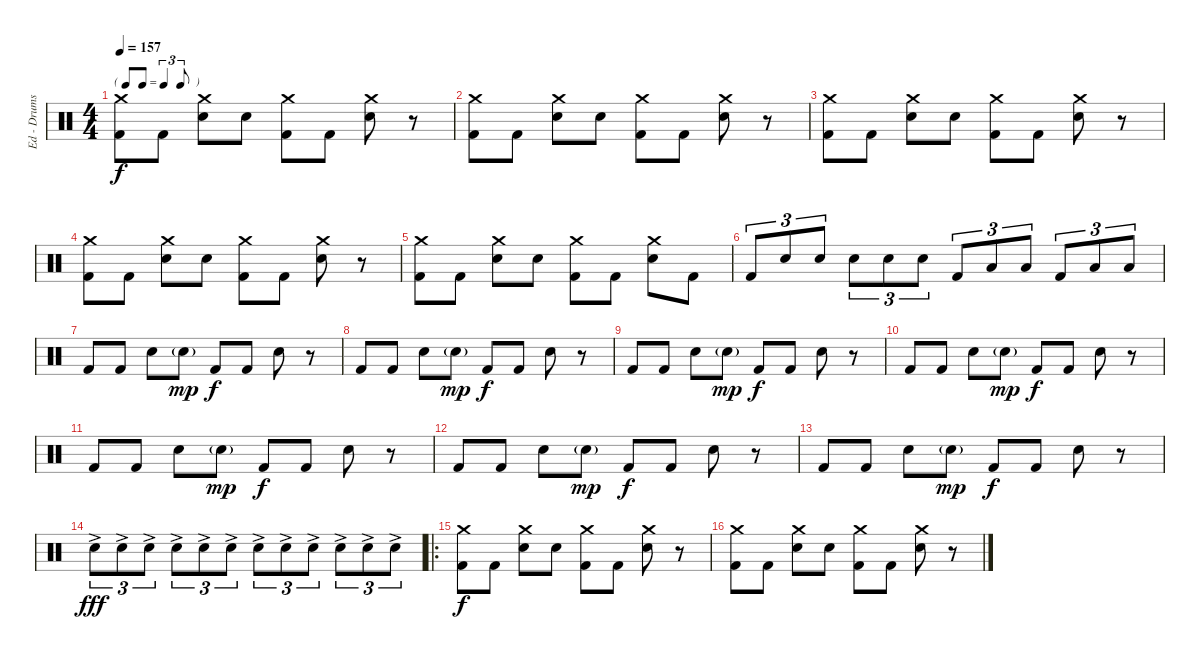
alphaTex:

\track ("Ed - Drums" "Ed - Drums") {instrument percussion}
\staff {score}
\articulation defaults
\ts (4 4)
\tf triplet8th
\tempo 157
\clef neutral
\ks c
("Crash medium (hit)" "Kick (hit) 2").8{dy f} "Kick (hit) 2".8 ("Crash medium (hit)" "Electric Snare (hit)").8 "Electric Snare (hit)".8 ("Crash medium (hit)" "Kick (hit) 2").8 "Kick (hit) 2".8 ("Crash medium (hit)" "Electric Snare (hit)").8 r.8 |
("Crash medium (hit)" "Kick (hit) 2").8 "Kick (hit) 2".8 ("Crash medium (hit)" "Electric Snare (hit)").8 "Electric Snare (hit)".8 ("Crash medium (hit)" "Kick (hit) 2").8 "Kick (hit) 2".8 ("Crash medium (hit)" "Electric Snare (hit)").8 r.8 |
("Crash medium (hit)" "Kick (hit) 2").8 "Kick (hit) 2".8 ("Crash medium (hit)" "Electric Snare (hit)").8 "Electric Snare (hit)".8 ("Crash medium (hit)" "Kick (hit) 2").8 "Kick (hit) 2".8 ("Crash medium (hit)" "Electric Snare (hit)").8 r.8 |
("Crash medium (hit)" "Kick (hit) 2").8 "Kick (hit) 2".8 ("Crash medium (hit)" "Electric Snare (hit)").8 "Electric Snare (hit)".8 ("Crash medium (hit)" "Kick (hit) 2").8 "Kick (hit) 2".8 ("Crash medium (hit)" "Electric Snare (hit)").8 r.8 |
("Crash medium (hit)" "Kick (hit) 2").8 "Kick (hit) 2".8 ("Crash medium (hit)" "Electric Snare (hit)").8 "Electric Snare (hit)".8 ("Crash medium (hit)" "Kick (hit) 2").8 "Kick (hit) 2".8 ("Crash medium (hit)" "Electric Snare (hit)").8 "Kick (hit) 2".8 |
"Kick (hit) 2".8{tu (3 2)} "Electric Snare (hit)".8{tu (3 2)} "Electric Snare (hit)".8{tu (3 2)} "Electric Snare (hit)".8{tu (3 2)} "Electric Snare (hit)".8{tu (3 2)} "Electric Snare (hit)".8{tu (3 2)} "Kick (hit) 2".8{tu (3 2)} "Low Tom (hit)".8{tu (3 2)} "Low Tom (hit)".8{tu (3 2)} "Kick (hit) 2".8{tu (3 2)} "Low Floor Tom (hit)".8{tu (3 2)} "Low Floor Tom (hit)".8{tu (3 2)} |
"Kick (hit) 2".8 "Kick (hit) 2".8 "Electric Snare (hit)".8 "Electric Snare (hit)"{g}.8{dy mp} "Kick (hit) 2".8{dy f} "Kick (hit) 2".8 "Electric Snare (hit)".8 r.8 |
"Kick (hit) 2".8 "Kick (hit) 2".8 "Electric Snare (hit)".8 "Electric Snare (hit)"{g}.8{dy mp} "Kick (hit) 2".8{dy f} "Kick (hit) 2".8 "Electric Snare (hit)".8 r.8 |
"Kick (hit) 2".8 "Kick (hit) 2".8 "Electric Snare (hit)".8 "Electric Snare (hit)"{g}.8{dy mp} "Kick (hit) 2".8{dy f} "Kick (hit) 2".8 "Electric Snare (hit)".8 r.8 |
"Kick (hit) 2".8 "Kick (hit) 2".8 "Electric Snare (hit)".8 "Electric Snare (hit)"{g}.8{dy mp} "Kick (hit) 2".8{dy f} "Kick (hit) 2".8 "Electric Snare (hit)".8 r.8 |
"Kick (hit) 2".8 "Kick (hit) 2".8 "Electric Snare (hit)".8 "Electric Snare (hit)"{g}.8{dy mp} "Kick (hit) 2".8{dy f} "Kick (hit) 2".8 "Electric Snare (hit)".8 r.8 |
"Kick (hit) 2".8 "Kick (hit) 2".8 "Electric Snare (hit)".8 "Electric Snare (hit)"{g}.8{dy mp} "Kick (hit) 2".8{dy f} "Kick (hit) 2".8 "Electric Snare (hit)".8 r.8 |
"Kick (hit) 2".8 "Kick (hit) 2".8 "Electric Snare (hit)".8 "Electric Snare (hit)"{g}.8{dy mp} "Kick (hit) 2".8{dy f} "Kick (hit) 2".8 "Electric Snare (hit)".8 r.8 |
"Electric Snare (hit)"{ac}.8{tu (3 2) dy fff} "Electric Snare (hit)"{ac}.8{tu (3 2)} "Electric Snare (hit)"{ac}.8{tu (3 2)} "Electric Snare (hit)"{ac}.8{tu (3 2)} "Electric Snare (hit)"{ac}.8{tu (3 2)} "Electric Snare (hit)"{ac}.8{tu (3 2)} "Electric Snare (hit)"{ac}.8{tu (3 2)} "Electric Snare (hit)"{ac}.8{tu (3 2)} "Electric Snare (hit)"{ac}.8{tu (3 2)} "Electric Snare (hit)"{ac}.8{tu (3 2)} "Electric Snare (hit)"{ac}.8{tu (3 2)} "Electric Snare (hit)"{ac}.8{tu (3 2)} |
\ro
("Crash medium (hit)" "Kick (hit) 2").8{dy f} "Kick (hit) 2".8 ("Crash medium (hit)" "Electric Snare (hit)").8 "Electric Snare (hit)".8 ("Crash medium (hit)" "Kick (hit) 2").8 "Kick (hit) 2".8 ("Crash medium (hit)" "Electric Snare (hit)").8 r.8 |
("Crash medium (hit)" "Kick (hit) 2").8 "Kick (hit) 2".8 ("Crash medium (hit)" "Electric Snare (hit)").8 "Electric Snare (hit)".8 ("Crash medium (hit)" "Kick (hit) 2").8 "Kick (hit) 2".8 ("Crash medium (hit)" "Electric Snare (hit)").8 r.8
